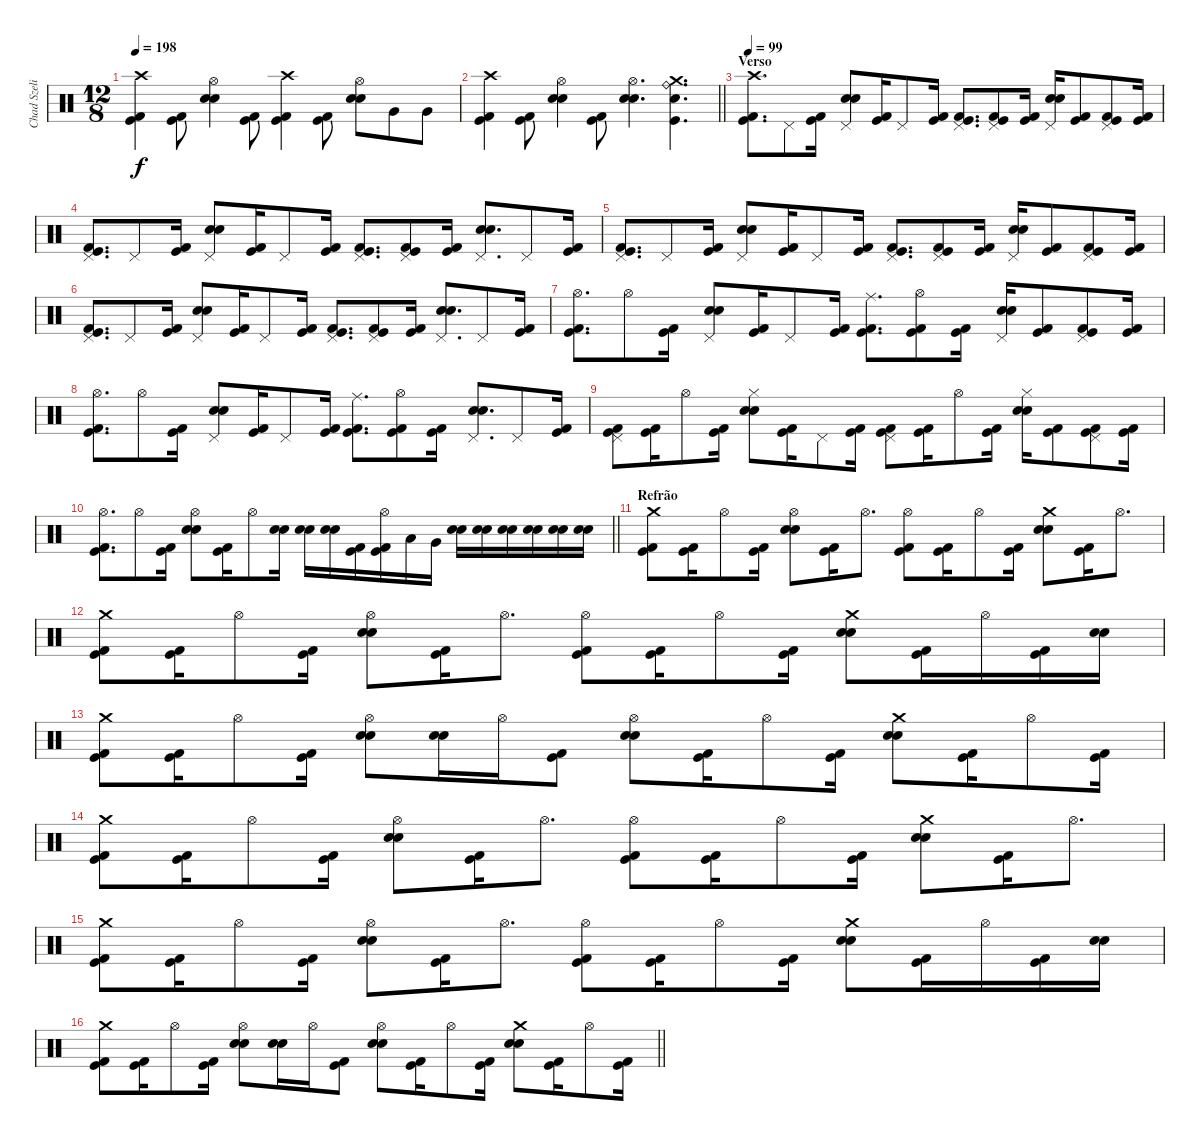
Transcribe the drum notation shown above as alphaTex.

\track ("Chad Szeliga" "Chad Szeli") {instrument percussion}
\staff {score}
\articulation defaults
\ts (12 8)
\tempo 198
\clef neutral
\ks c
("Crash high (hit)" "Kick (hit) 2" "Kick (hit)").4{dy f} ("Kick (hit) 2" "Kick (hit)").8{beam Down} ("Snare (hit) 2" "Snare (hit) 2" "Hi-Hat (open)").4 ("Kick (hit) 2" "Kick (hit)").8{beam Down} ("Crash high (hit)" "Kick (hit) 2" "Kick (hit)").4 ("Kick (hit) 2" "Kick (hit)").8{beam Down} ("Snare (hit) 2" "Snare (hit) 2" "Hi-Hat (open)").8 "Very Low Tom (hit)".8 "Very Low Tom (hit)".8 |
\barLineRight lightlight
("Crash high (hit)" "Kick (hit) 2" "Kick (hit)").4 ("Kick (hit) 2" "Kick (hit)").8{beam Down} ("Snare (hit) 2" "Snare (hit) 2" "Hi-Hat (open)").4 ("Kick (hit) 2" "Kick (hit)").8{beam Down} ("Snare (hit) 2" "Snare (hit) 2" "Hi-Hat (open)").4{d} ("Crash medium (hit)" "Snare (hit) 2" "Kick (hit)" "Ride (bell)").4{d} |
\section ("" "Verso")
\tempo 99
("Crash high (hit)" "Kick (hit) 2" "Kick (hit)").8{d} "Pedal Hi-Hat (hit)".8 ("Kick (hit) 2" "Kick (hit)").16 ("Snare (hit) 2" "Snare (hit) 2" "Pedal Hi-Hat (hit)").8 ("Kick (hit) 2" "Kick (hit)").16 "Pedal Hi-Hat (hit)".8 ("Kick (hit) 2" "Kick (hit)").16 ("Kick (hit) 2" "Kick (hit)" "Pedal Hi-Hat (hit)").8{d} ("Kick (hit) 2" "Kick (hit)" "Pedal Hi-Hat (hit)").8 ("Kick (hit) 2" "Kick (hit)").16 ("Snare (hit) 2" "Snare (hit) 2" "Pedal Hi-Hat (hit)").16 ("Kick (hit) 2" "Kick (hit)").8 ("Kick (hit) 2" "Kick (hit)" "Pedal Hi-Hat (hit)").8 ("Kick (hit) 2" "Kick (hit)").16 |
("Kick (hit) 2" "Kick (hit)" "Pedal Hi-Hat (hit)").8{d} "Pedal Hi-Hat (hit)".8 ("Kick (hit) 2" "Kick (hit)").16 ("Snare (hit) 2" "Snare (hit) 2" "Pedal Hi-Hat (hit)").8 ("Kick (hit) 2" "Kick (hit)").16 "Pedal Hi-Hat (hit)".8 ("Kick (hit) 2" "Kick (hit)").16 ("Kick (hit) 2" "Kick (hit)" "Pedal Hi-Hat (hit)").8{d} ("Kick (hit) 2" "Kick (hit)" "Pedal Hi-Hat (hit)").8 ("Kick (hit) 2" "Kick (hit)").16 ("Snare (hit) 2" "Snare (hit) 2" "Pedal Hi-Hat (hit)").8{d} "Pedal Hi-Hat (hit)".8 ("Kick (hit) 2" "Kick (hit)").16 |
("Kick (hit) 2" "Kick (hit)" "Pedal Hi-Hat (hit)").8{d} "Pedal Hi-Hat (hit)".8 ("Kick (hit) 2" "Kick (hit)").16 ("Snare (hit) 2" "Snare (hit) 2" "Pedal Hi-Hat (hit)").8 ("Kick (hit) 2" "Kick (hit)").16 "Pedal Hi-Hat (hit)".8 ("Kick (hit) 2" "Kick (hit)").16 ("Kick (hit) 2" "Kick (hit)" "Pedal Hi-Hat (hit)").8{d} ("Kick (hit) 2" "Kick (hit)" "Pedal Hi-Hat (hit)").8 ("Kick (hit) 2" "Kick (hit)").16 ("Snare (hit) 2" "Snare (hit) 2" "Pedal Hi-Hat (hit)").16 ("Kick (hit) 2" "Kick (hit)").8 ("Kick (hit) 2" "Kick (hit)" "Pedal Hi-Hat (hit)").8 ("Kick (hit) 2" "Kick (hit)").16 |
("Kick (hit) 2" "Kick (hit)" "Pedal Hi-Hat (hit)").8{d} "Pedal Hi-Hat (hit)".8 ("Kick (hit) 2" "Kick (hit)").16 ("Snare (hit) 2" "Snare (hit) 2" "Pedal Hi-Hat (hit)").8 ("Kick (hit) 2" "Kick (hit)").16 "Pedal Hi-Hat (hit)".8 ("Kick (hit) 2" "Kick (hit)").16 ("Kick (hit) 2" "Kick (hit)" "Pedal Hi-Hat (hit)").8{d} ("Kick (hit) 2" "Kick (hit)" "Pedal Hi-Hat (hit)").8 ("Kick (hit) 2" "Kick (hit)").16 ("Snare (hit) 2" "Snare (hit) 2" "Pedal Hi-Hat (hit)").8{d} "Pedal Hi-Hat (hit)".8 ("Kick (hit) 2" "Kick (hit)").16 |
("Kick (hit) 2" "Kick (hit)" "Hi-Hat (open)").8{d} "Hi-Hat (open)".8 ("Kick (hit) 2" "Kick (hit)").16 ("Snare (hit) 2" "Snare (hit) 2" "Pedal Hi-Hat (hit)").8 ("Kick (hit) 2" "Kick (hit)").16 "Pedal Hi-Hat (hit)".8 ("Kick (hit) 2" "Kick (hit)").16 ("Ride (middle)" "Kick (hit) 2" "Kick (hit)").8{d} ("Kick (hit) 2" "Kick (hit)" "Hi-Hat (open)").8 ("Kick (hit) 2" "Kick (hit)").16 ("Snare (hit) 2" "Snare (hit) 2" "Pedal Hi-Hat (hit)").16 ("Kick (hit) 2" "Kick (hit)").8 ("Kick (hit) 2" "Kick (hit)" "Pedal Hi-Hat (hit)").8 ("Kick (hit) 2" "Kick (hit)").16 |
("Kick (hit) 2" "Kick (hit)" "Hi-Hat (open)").8{d} "Hi-Hat (open)".8 ("Kick (hit) 2" "Kick (hit)").16 ("Snare (hit) 2" "Snare (hit) 2" "Pedal Hi-Hat (hit)").8 ("Kick (hit) 2" "Kick (hit)").16 "Pedal Hi-Hat (hit)".8 ("Kick (hit) 2" "Kick (hit)").16 ("Ride (middle)" "Kick (hit) 2" "Kick (hit)").8{d} ("Kick (hit) 2" "Kick (hit)" "Hi-Hat (open)").8 ("Kick (hit) 2" "Kick (hit)").16 ("Snare (hit) 2" "Snare (hit) 2" "Pedal Hi-Hat (hit)").8{d} "Pedal Hi-Hat (hit)".8 ("Kick (hit) 2" "Kick (hit)").16 |
("Kick (hit) 2" "Kick (hit)" "Pedal Hi-Hat (hit)").8 ("Kick (hit) 2" "Kick (hit)").16 "Hi-Hat (open)".8 ("Kick (hit) 2" "Kick (hit)").16 ("Snare (hit) 2" "Snare (hit) 2" "Hi-Hat (closed)").8 ("Kick (hit) 2" "Kick (hit)").16 "Pedal Hi-Hat (hit)".8 ("Kick (hit) 2" "Kick (hit)").16 ("Kick (hit) 2" "Kick (hit)" "Pedal Hi-Hat (hit)").8 ("Kick (hit) 2" "Kick (hit)").16 "Hi-Hat (open)".8 ("Kick (hit) 2" "Kick (hit)").16 ("Snare (hit) 2" "Snare (hit) 2" "Hi-Hat (closed)").16 ("Kick (hit) 2" "Kick (hit)").8 ("Kick (hit) 2" "Kick (hit)" "Pedal Hi-Hat (hit)").8 ("Kick (hit) 2" "Kick (hit)").16 |
\barLineRight lightlight
("Kick (hit) 2" "Kick (hit)" "Hi-Hat (open)").8{d} "Hi-Hat (open)".8 ("Kick (hit) 2" "Kick (hit)").16 ("Snare (hit) 2" "Snare (hit) 2" "Hi-Hat (open)").8 ("Kick (hit) 2" "Kick (hit)").16 "Hi-Hat (open)".8 ("Snare (hit) 2" "Snare (hit) 2").16 ("Snare (hit) 2" "Snare (hit) 2").16 ("Snare (hit) 2" "Snare (hit) 2").16 ("Kick (hit) 2" "Kick (hit)").16 ("Kick (hit) 2" "Kick (hit)" "Hi-Hat (open)").16 "Low Tom (hit)".16 "Very Low Tom (hit)".16 ("Snare (hit) 2" "Snare (hit) 2").16 ("Snare (hit) 2" "Snare (hit) 2").16 ("Snare (hit) 2" "Snare (hit) 2").16 ("Snare (hit) 2" "Snare (hit) 2").16 ("Snare (hit) 2" "Snare (hit) 2").16 ("Snare (hit) 2" "Snare (hit) 2").16 |
\section ("" "Refrão")
("Crash medium (hit)" "Kick (hit) 2" "Kick (hit)").8 ("Kick (hit) 2" "Kick (hit)").16 "Hi-Hat (open)".8 ("Kick (hit) 2" "Kick (hit)").16 ("Snare (hit) 2" "Snare (hit) 2" "Hi-Hat (open)").8 ("Kick (hit) 2" "Kick (hit)").16 "Hi-Hat (open)".8{d} ("Kick (hit) 2" "Kick (hit)" "Hi-Hat (open)").8 ("Kick (hit) 2" "Kick (hit)").16 "Hi-Hat (open)".8 ("Kick (hit) 2" "Kick (hit)").16 ("Crash medium (hit)" "Snare (hit) 2" "Snare (hit) 2").8 ("Kick (hit) 2" "Kick (hit)").16 "Hi-Hat (open)".8{d} |
("Crash medium (hit)" "Kick (hit) 2" "Kick (hit)").8 ("Kick (hit) 2" "Kick (hit)").16 "Hi-Hat (open)".8 ("Kick (hit) 2" "Kick (hit)").16 ("Snare (hit) 2" "Snare (hit) 2" "Hi-Hat (open)").8 ("Kick (hit) 2" "Kick (hit)").16 "Hi-Hat (open)".8{d} ("Kick (hit) 2" "Kick (hit)" "Hi-Hat (open)").8 ("Kick (hit) 2" "Kick (hit)").16 "Hi-Hat (open)".8 ("Kick (hit) 2" "Kick (hit)").16 ("Crash medium (hit)" "Snare (hit) 2" "Snare (hit) 2").8 ("Kick (hit) 2" "Kick (hit)").16 "Hi-Hat (open)".16 ("Kick (hit) 2" "Kick (hit)").16 ("Snare (hit) 2" "Snare (hit) 2").16 |
("Crash medium (hit)" "Kick (hit) 2" "Kick (hit)").8 ("Kick (hit) 2" "Kick (hit)").16 "Hi-Hat (open)".8 ("Kick (hit) 2" "Kick (hit)").16 ("Snare (hit) 2" "Snare (hit) 2" "Hi-Hat (open)").8 ("Snare (hit) 2" "Snare (hit) 2").16 "Hi-Hat (open)".16 ("Kick (hit) 2" "Kick (hit)").8 ("Snare (hit) 2" "Snare (hit) 2" "Hi-Hat (open)").8 ("Kick (hit) 2" "Kick (hit)").16 "Hi-Hat (open)".8 ("Kick (hit) 2" "Kick (hit)").16 ("Crash medium (hit)" "Snare (hit) 2" "Snare (hit) 2").8 ("Kick (hit) 2" "Kick (hit)").16 "Hi-Hat (open)".8 ("Kick (hit) 2" "Kick (hit)").16 |
("Crash medium (hit)" "Kick (hit) 2" "Kick (hit)").8 ("Kick (hit) 2" "Kick (hit)").16 "Hi-Hat (open)".8 ("Kick (hit) 2" "Kick (hit)").16 ("Snare (hit) 2" "Snare (hit) 2" "Hi-Hat (open)").8 ("Kick (hit) 2" "Kick (hit)").16 "Hi-Hat (open)".8{d} ("Kick (hit) 2" "Kick (hit)" "Hi-Hat (open)").8 ("Kick (hit) 2" "Kick (hit)").16 "Hi-Hat (open)".8 ("Kick (hit) 2" "Kick (hit)").16 ("Crash medium (hit)" "Snare (hit) 2" "Snare (hit) 2").8 ("Kick (hit) 2" "Kick (hit)").16 "Hi-Hat (open)".8{d} |
("Crash medium (hit)" "Kick (hit) 2" "Kick (hit)").8 ("Kick (hit) 2" "Kick (hit)").16 "Hi-Hat (open)".8 ("Kick (hit) 2" "Kick (hit)").16 ("Snare (hit) 2" "Snare (hit) 2" "Hi-Hat (open)").8 ("Kick (hit) 2" "Kick (hit)").16 "Hi-Hat (open)".8{d} ("Kick (hit) 2" "Kick (hit)" "Hi-Hat (open)").8 ("Kick (hit) 2" "Kick (hit)").16 "Hi-Hat (open)".8 ("Kick (hit) 2" "Kick (hit)").16 ("Crash medium (hit)" "Snare (hit) 2" "Snare (hit) 2").8 ("Kick (hit) 2" "Kick (hit)").16 "Hi-Hat (open)".16 ("Kick (hit) 2" "Kick (hit)").16 ("Snare (hit) 2" "Snare (hit) 2").16 |
\barLineRight lightlight
("Crash medium (hit)" "Kick (hit) 2" "Kick (hit)").8 ("Kick (hit) 2" "Kick (hit)").16 "Hi-Hat (open)".8 ("Kick (hit) 2" "Kick (hit)").16 ("Snare (hit) 2" "Snare (hit) 2" "Hi-Hat (open)").8 ("Snare (hit) 2" "Snare (hit) 2").16 "Hi-Hat (open)".16 ("Kick (hit) 2" "Kick (hit)").8 ("Snare (hit) 2" "Snare (hit) 2" "Hi-Hat (open)").8 ("Kick (hit) 2" "Kick (hit)").16 "Hi-Hat (open)".8 ("Kick (hit) 2" "Kick (hit)").16 ("Crash medium (hit)" "Snare (hit) 2" "Snare (hit) 2").8 ("Kick (hit) 2" "Kick (hit)").16 "Hi-Hat (open)".8 ("Kick (hit) 2" "Kick (hit)").16
